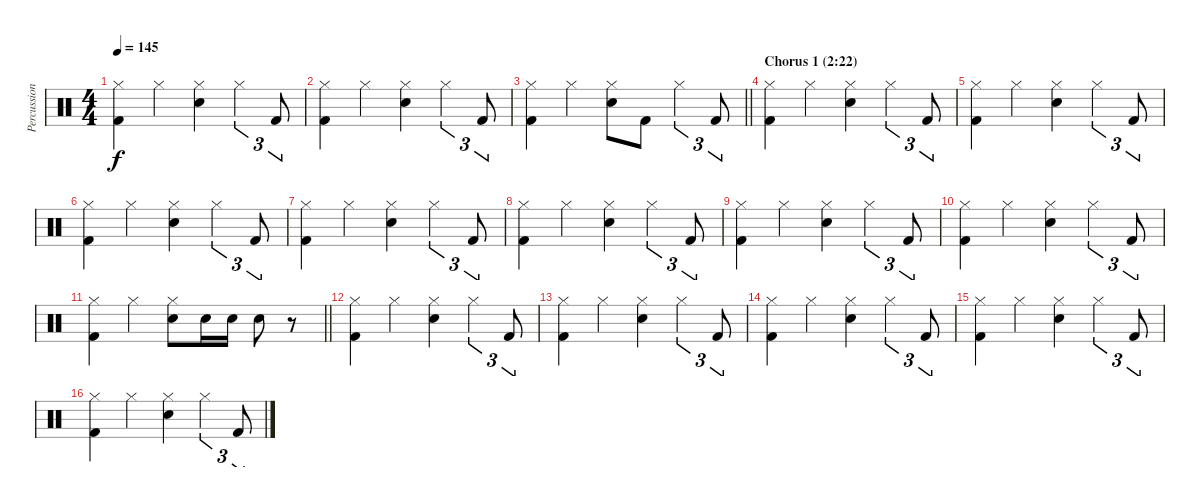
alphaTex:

\track ("Percussion" "Percussion") {instrument percussion}
\staff {score}
\articulation defaults
\ts (4 4)
\tempo 145
\clef neutral
\ks c
("Hi-Hat (closed)" "Kick (hit) 2").4{dy f} "Hi-Hat (closed)".4 ("Hi-Hat (closed)" "Electric Snare (hit)").4 "Hi-Hat (closed)".4{tu (3 2)} "Kick (hit) 2".8{tu (3 2)} |
("Hi-Hat (closed)" "Kick (hit) 2").4 "Hi-Hat (closed)".4 ("Hi-Hat (closed)" "Electric Snare (hit)").4 "Hi-Hat (closed)".4{tu (3 2)} "Kick (hit) 2".8{tu (3 2)} |
\barLineRight lightlight
("Hi-Hat (closed)" "Kick (hit) 2").4 "Hi-Hat (closed)".4 ("Hi-Hat (closed)" "Electric Snare (hit)").8 "Kick (hit) 2".8 "Hi-Hat (closed)".4{tu (3 2)} "Kick (hit) 2".8{tu (3 2)} |
\section ("" "Chorus 1 (2:22)")
("Hi-Hat (closed)" "Kick (hit) 2").4 "Hi-Hat (closed)".4 ("Hi-Hat (closed)" "Electric Snare (hit)").4 "Hi-Hat (closed)".4{tu (3 2)} "Kick (hit) 2".8{tu (3 2)} |
("Hi-Hat (closed)" "Kick (hit) 2").4 "Hi-Hat (closed)".4 ("Hi-Hat (closed)" "Electric Snare (hit)").4 "Hi-Hat (closed)".4{tu (3 2)} "Kick (hit) 2".8{tu (3 2)} |
("Hi-Hat (closed)" "Kick (hit) 2").4 "Hi-Hat (closed)".4 ("Hi-Hat (closed)" "Electric Snare (hit)").4 "Hi-Hat (closed)".4{tu (3 2)} "Kick (hit) 2".8{tu (3 2)} |
("Hi-Hat (closed)" "Kick (hit) 2").4 "Hi-Hat (closed)".4 ("Hi-Hat (closed)" "Electric Snare (hit)").4 "Hi-Hat (closed)".4{tu (3 2)} "Kick (hit) 2".8{tu (3 2)} |
("Hi-Hat (closed)" "Kick (hit) 2").4 "Hi-Hat (closed)".4 ("Hi-Hat (closed)" "Electric Snare (hit)").4 "Hi-Hat (closed)".4{tu (3 2)} "Kick (hit) 2".8{tu (3 2)} |
("Hi-Hat (closed)" "Kick (hit) 2").4 "Hi-Hat (closed)".4 ("Hi-Hat (closed)" "Electric Snare (hit)").4 "Hi-Hat (closed)".4{tu (3 2)} "Kick (hit) 2".8{tu (3 2)} |
("Hi-Hat (closed)" "Kick (hit) 2").4 "Hi-Hat (closed)".4 ("Hi-Hat (closed)" "Electric Snare (hit)").4 "Hi-Hat (closed)".4{tu (3 2)} "Kick (hit) 2".8{tu (3 2)} |
\barLineRight lightlight
("Hi-Hat (closed)" "Kick (hit) 2").4 "Hi-Hat (closed)".4 ("Hi-Hat (closed)" "Electric Snare (hit)").8 "Electric Snare (hit)".16 "Electric Snare (hit)".16 "Electric Snare (hit)".8 r.8 |
("Hi-Hat (closed)" "Kick (hit) 2").4 "Hi-Hat (closed)".4 ("Hi-Hat (closed)" "Electric Snare (hit)").4 "Hi-Hat (closed)".4{tu (3 2)} "Kick (hit) 2".8{tu (3 2)} |
("Hi-Hat (closed)" "Kick (hit) 2").4 "Hi-Hat (closed)".4 ("Hi-Hat (closed)" "Electric Snare (hit)").4 "Hi-Hat (closed)".4{tu (3 2)} "Kick (hit) 2".8{tu (3 2)} |
("Hi-Hat (closed)" "Kick (hit) 2").4 "Hi-Hat (closed)".4 ("Hi-Hat (closed)" "Electric Snare (hit)").4 "Hi-Hat (closed)".4{tu (3 2)} "Kick (hit) 2".8{tu (3 2)} |
("Hi-Hat (closed)" "Kick (hit) 2").4 "Hi-Hat (closed)".4 ("Hi-Hat (closed)" "Electric Snare (hit)").4 "Hi-Hat (closed)".4{tu (3 2)} "Kick (hit) 2".8{tu (3 2)} |
("Hi-Hat (closed)" "Kick (hit) 2").4 "Hi-Hat (closed)".4 ("Hi-Hat (closed)" "Electric Snare (hit)").4 "Hi-Hat (closed)".4{tu (3 2)} "Kick (hit) 2".8{tu (3 2)}
